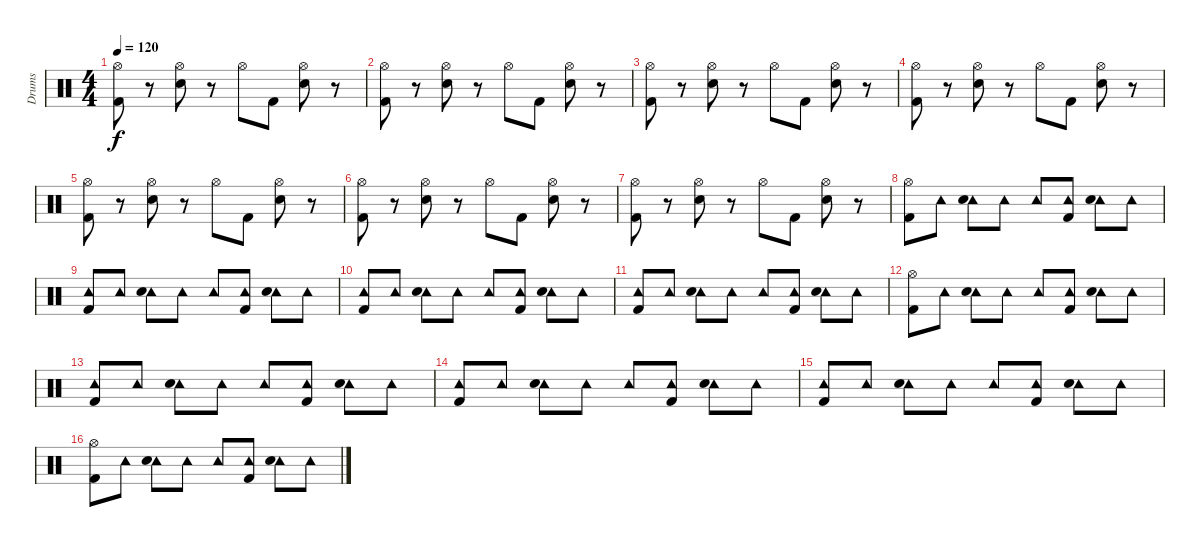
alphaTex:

\track ("Drums" "Drums") {instrument percussion}
\staff {score}
\articulation defaults
\ts (4 4)
\tempo 120
\clef neutral
\ks c
("Hi-Hat (open)" "Kick (hit) 2").8{dy f} r.8 ("Hi-Hat (open)" "Hand Clap (hit)").8 r.8 "Hi-Hat (open)".8 "Kick (hit) 2".8 ("Hi-Hat (open)" "Hand Clap (hit)").8 r.8 |
("Hi-Hat (open)" "Kick (hit) 2").8 r.8 ("Hi-Hat (open)" "Hand Clap (hit)").8 r.8 "Hi-Hat (open)".8 "Kick (hit) 2".8 ("Hi-Hat (open)" "Hand Clap (hit)").8 r.8 |
("Hi-Hat (open)" "Kick (hit) 2").8 r.8 ("Hi-Hat (open)" "Hand Clap (hit)").8 r.8 "Hi-Hat (open)".8 "Kick (hit) 2".8 ("Hi-Hat (open)" "Hand Clap (hit)").8 r.8 |
("Hi-Hat (open)" "Kick (hit) 2").8 r.8 ("Hi-Hat (open)" "Hand Clap (hit)").8 r.8 "Hi-Hat (open)".8 "Kick (hit) 2".8 ("Hi-Hat (open)" "Hand Clap (hit)").8 r.8 |
("Hi-Hat (open)" "Kick (hit) 2").8 r.8 ("Hi-Hat (open)" "Hand Clap (hit)").8 r.8 "Hi-Hat (open)".8 "Kick (hit) 2".8 ("Hi-Hat (open)" "Hand Clap (hit)").8 r.8 |
("Hi-Hat (open)" "Kick (hit) 2").8 r.8 ("Hi-Hat (open)" "Hand Clap (hit)").8 r.8 "Hi-Hat (open)".8 "Kick (hit) 2".8 ("Hi-Hat (open)" "Hand Clap (hit)").8 r.8 |
("Hi-Hat (open)" "Kick (hit) 2").8 r.8 ("Hi-Hat (open)" "Hand Clap (hit)").8 r.8 "Hi-Hat (open)".8 "Kick (hit) 2".8 ("Hi-Hat (open)" "Hand Clap (hit)").8 r.8 |
("Hi-Hat (open)" "Kick (hit) 2").8 "Tambourine (hit)".8 ("Tambourine (hit)" "Hand Clap (hit)").8 "Tambourine (hit)".8 "Tambourine (hit)".8 ("Tambourine (hit)" "Kick (hit) 2").8 ("Tambourine (hit)" "Hand Clap (hit)").8 "Tambourine (hit)".8 |
("Tambourine (hit)" "Kick (hit) 2").8 "Tambourine (hit)".8 ("Tambourine (hit)" "Hand Clap (hit)").8 "Tambourine (hit)".8 "Tambourine (hit)".8 ("Tambourine (hit)" "Kick (hit) 2").8 ("Tambourine (hit)" "Hand Clap (hit)").8 "Tambourine (hit)".8 |
("Tambourine (hit)" "Kick (hit) 2").8 "Tambourine (hit)".8 ("Tambourine (hit)" "Hand Clap (hit)").8 "Tambourine (hit)".8 "Tambourine (hit)".8 ("Tambourine (hit)" "Kick (hit) 2").8 ("Tambourine (hit)" "Hand Clap (hit)").8 "Tambourine (hit)".8 |
("Tambourine (hit)" "Kick (hit) 2").8 "Tambourine (hit)".8 ("Tambourine (hit)" "Hand Clap (hit)").8 "Tambourine (hit)".8 "Tambourine (hit)".8 ("Tambourine (hit)" "Kick (hit) 2").8 ("Tambourine (hit)" "Hand Clap (hit)").8 "Tambourine (hit)".8 |
("Hi-Hat (open)" "Kick (hit) 2").8 "Tambourine (hit)".8 ("Tambourine (hit)" "Hand Clap (hit)").8 "Tambourine (hit)".8 "Tambourine (hit)".8 ("Tambourine (hit)" "Kick (hit) 2").8 ("Tambourine (hit)" "Hand Clap (hit)").8 "Tambourine (hit)".8 |
("Tambourine (hit)" "Kick (hit) 2").8 "Tambourine (hit)".8 ("Tambourine (hit)" "Hand Clap (hit)").8 "Tambourine (hit)".8 "Tambourine (hit)".8 ("Tambourine (hit)" "Kick (hit) 2").8 ("Tambourine (hit)" "Hand Clap (hit)").8 "Tambourine (hit)".8 |
("Tambourine (hit)" "Kick (hit) 2").8 "Tambourine (hit)".8 ("Tambourine (hit)" "Hand Clap (hit)").8 "Tambourine (hit)".8 "Tambourine (hit)".8 ("Tambourine (hit)" "Kick (hit) 2").8 ("Tambourine (hit)" "Hand Clap (hit)").8 "Tambourine (hit)".8 |
("Tambourine (hit)" "Kick (hit) 2").8 "Tambourine (hit)".8 ("Tambourine (hit)" "Hand Clap (hit)").8 "Tambourine (hit)".8 "Tambourine (hit)".8 ("Tambourine (hit)" "Kick (hit) 2").8 ("Tambourine (hit)" "Hand Clap (hit)").8 "Tambourine (hit)".8 |
("Hi-Hat (open)" "Kick (hit) 2").8 "Tambourine (hit)".8 ("Tambourine (hit)" "Hand Clap (hit)").8 "Tambourine (hit)".8 "Tambourine (hit)".8 ("Tambourine (hit)" "Kick (hit) 2").8 ("Tambourine (hit)" "Hand Clap (hit)").8 "Tambourine (hit)".8
